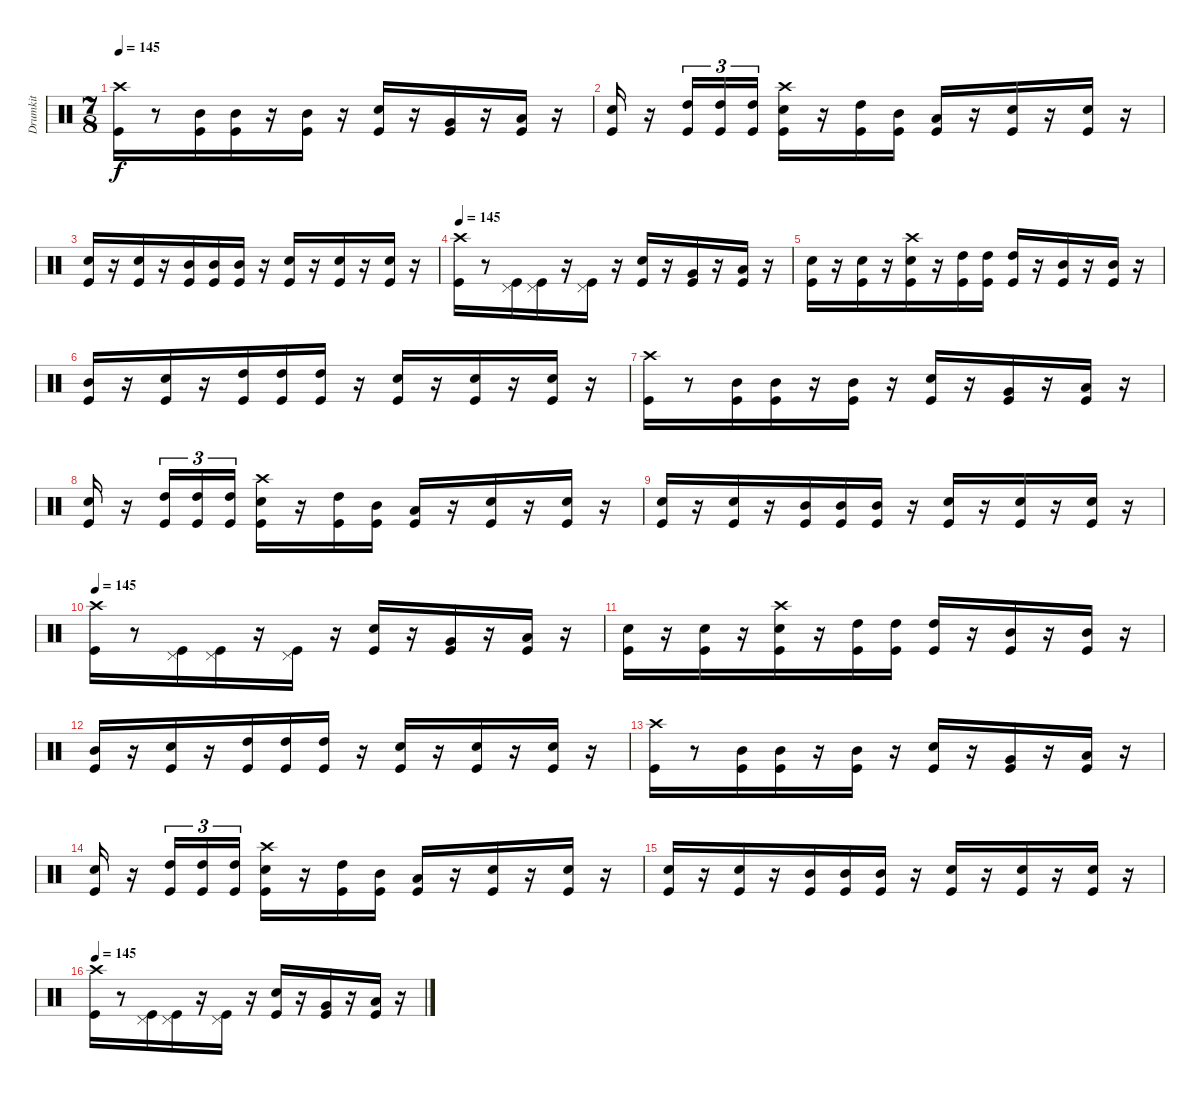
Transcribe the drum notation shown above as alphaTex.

\track ("Drumkit" "Drumkit") {instrument percussion}
\staff {score}
\articulation defaults
\ts (7 8)
\tempo 145
\clef neutral
\ks c
("Crash high (hit)" "Kick (hit)").16{dy f} r.8 ("Mid Tom (hit)" "Kick (hit)").16 ("Mid Tom (hit)" "Kick (hit)").16 r.16 ("Mid Tom (hit)" "Kick (hit)").16 r.16 ("Snare (hit) 2" "Kick (hit)").16 r.16 ("Very Low Tom (hit)" "Kick (hit)").16 r.16 ("Low Tom (hit)" "Kick (hit)").16 r.16 |
("Snare (hit) 2" "Kick (hit)").16 r.16 ("High Tom (hit)" "Kick (hit)").16{tu (3 2)} ("High Tom (hit)" "Kick (hit)").16{tu (3 2)} ("High Tom (hit)" "Kick (hit)").16{tu (3 2)} ("Crash high (hit)" "Snare (hit) 2" "Kick (hit)").16 r.16 ("High Tom (hit)" "Kick (hit)").16 ("Mid Tom (hit)" "Kick (hit)").16 ("Low Tom (hit)" "Kick (hit)").16 r.16 ("Snare (hit) 2" "Kick (hit)").16 r.16 ("Snare (hit) 2" "Kick (hit)").16 r.16 |
("Snare (hit) 2" "Kick (hit)").16 r.16 ("Snare (hit) 2" "Kick (hit)").16 r.16 ("Mid Tom (hit)" "Kick (hit)").16 ("Mid Tom (hit)" "Kick (hit)").16 ("Mid Tom (hit)" "Kick (hit)").16 r.16 ("Snare (hit) 2" "Kick (hit)").16 r.16 ("Snare (hit) 2" "Kick (hit)").16 r.16 ("Snare (hit) 2" "Kick (hit)").16 r.16 |
\tempo 145
("Crash high (hit)" "Kick (hit)").16 r.8 ("Pedal Hi-Hat (hit)" "Kick (hit)").16 ("Pedal Hi-Hat (hit)" "Kick (hit)").16 r.16 ("Pedal Hi-Hat (hit)" "Kick (hit)").16 r.16 ("Snare (hit) 2" "Kick (hit)").16 r.16 ("Very Low Tom (hit)" "Kick (hit)").16 r.16 ("Low Tom (hit)" "Kick (hit)").16 r.16 |
("Snare (hit) 2" "Kick (hit)").16 r.16 ("Snare (hit) 2" "Kick (hit)").16 r.16 ("Crash high (hit)" "Snare (hit) 2" "Kick (hit)").16 r.16 ("High Tom (hit)" "Kick (hit)").16 ("High Tom (hit)" "Kick (hit)").16 ("High Tom (hit)" "Kick (hit)").16 r.16 ("Mid Tom (hit)" "Kick (hit)").16 r.16 ("Mid Tom (hit)" "Kick (hit)").16 r.16 |
("Mid Tom (hit)" "Kick (hit)").16 r.16 ("Snare (hit) 2" "Kick (hit)").16 r.16 ("High Tom (hit)" "Kick (hit)").16 ("High Tom (hit)" "Kick (hit)").16 ("High Tom (hit)" "Kick (hit)").16 r.16 ("Snare (hit) 2" "Kick (hit)").16 r.16 ("Snare (hit) 2" "Kick (hit)").16 r.16 ("Snare (hit) 2" "Kick (hit)").16 r.16 |
("Crash high (hit)" "Kick (hit)").16 r.8 ("Mid Tom (hit)" "Kick (hit)").16 ("Mid Tom (hit)" "Kick (hit)").16 r.16 ("Mid Tom (hit)" "Kick (hit)").16 r.16 ("Snare (hit) 2" "Kick (hit)").16 r.16 ("Very Low Tom (hit)" "Kick (hit)").16 r.16 ("Low Tom (hit)" "Kick (hit)").16 r.16 |
("Snare (hit) 2" "Kick (hit)").16 r.16 ("High Tom (hit)" "Kick (hit)").16{tu (3 2)} ("High Tom (hit)" "Kick (hit)").16{tu (3 2)} ("High Tom (hit)" "Kick (hit)").16{tu (3 2)} ("Crash high (hit)" "Snare (hit) 2" "Kick (hit)").16 r.16 ("High Tom (hit)" "Kick (hit)").16 ("Mid Tom (hit)" "Kick (hit)").16 ("Low Tom (hit)" "Kick (hit)").16 r.16 ("Snare (hit) 2" "Kick (hit)").16 r.16 ("Snare (hit) 2" "Kick (hit)").16 r.16 |
("Snare (hit) 2" "Kick (hit)").16 r.16 ("Snare (hit) 2" "Kick (hit)").16 r.16 ("Mid Tom (hit)" "Kick (hit)").16 ("Mid Tom (hit)" "Kick (hit)").16 ("Mid Tom (hit)" "Kick (hit)").16 r.16 ("Snare (hit) 2" "Kick (hit)").16 r.16 ("Snare (hit) 2" "Kick (hit)").16 r.16 ("Snare (hit) 2" "Kick (hit)").16 r.16 |
\tempo 145
("Crash high (hit)" "Kick (hit)").16 r.8 ("Pedal Hi-Hat (hit)" "Kick (hit)").16 ("Pedal Hi-Hat (hit)" "Kick (hit)").16 r.16 ("Pedal Hi-Hat (hit)" "Kick (hit)").16 r.16 ("Snare (hit) 2" "Kick (hit)").16 r.16 ("Very Low Tom (hit)" "Kick (hit)").16 r.16 ("Low Tom (hit)" "Kick (hit)").16 r.16 |
("Snare (hit) 2" "Kick (hit)").16 r.16 ("Snare (hit) 2" "Kick (hit)").16 r.16 ("Crash high (hit)" "Snare (hit) 2" "Kick (hit)").16 r.16 ("High Tom (hit)" "Kick (hit)").16 ("High Tom (hit)" "Kick (hit)").16 ("High Tom (hit)" "Kick (hit)").16 r.16 ("Mid Tom (hit)" "Kick (hit)").16 r.16 ("Mid Tom (hit)" "Kick (hit)").16 r.16 |
("Mid Tom (hit)" "Kick (hit)").16 r.16 ("Snare (hit) 2" "Kick (hit)").16 r.16 ("High Tom (hit)" "Kick (hit)").16 ("High Tom (hit)" "Kick (hit)").16 ("High Tom (hit)" "Kick (hit)").16 r.16 ("Snare (hit) 2" "Kick (hit)").16 r.16 ("Snare (hit) 2" "Kick (hit)").16 r.16 ("Snare (hit) 2" "Kick (hit)").16 r.16 |
("Crash high (hit)" "Kick (hit)").16 r.8 ("Mid Tom (hit)" "Kick (hit)").16 ("Mid Tom (hit)" "Kick (hit)").16 r.16 ("Mid Tom (hit)" "Kick (hit)").16 r.16 ("Snare (hit) 2" "Kick (hit)").16 r.16 ("Very Low Tom (hit)" "Kick (hit)").16 r.16 ("Low Tom (hit)" "Kick (hit)").16 r.16 |
("Snare (hit) 2" "Kick (hit)").16 r.16 ("High Tom (hit)" "Kick (hit)").16{tu (3 2)} ("High Tom (hit)" "Kick (hit)").16{tu (3 2)} ("High Tom (hit)" "Kick (hit)").16{tu (3 2)} ("Crash high (hit)" "Snare (hit) 2" "Kick (hit)").16 r.16 ("High Tom (hit)" "Kick (hit)").16 ("Mid Tom (hit)" "Kick (hit)").16 ("Low Tom (hit)" "Kick (hit)").16 r.16 ("Snare (hit) 2" "Kick (hit)").16 r.16 ("Snare (hit) 2" "Kick (hit)").16 r.16 |
("Snare (hit) 2" "Kick (hit)").16 r.16 ("Snare (hit) 2" "Kick (hit)").16 r.16 ("Mid Tom (hit)" "Kick (hit)").16 ("Mid Tom (hit)" "Kick (hit)").16 ("Mid Tom (hit)" "Kick (hit)").16 r.16 ("Snare (hit) 2" "Kick (hit)").16 r.16 ("Snare (hit) 2" "Kick (hit)").16 r.16 ("Snare (hit) 2" "Kick (hit)").16 r.16 |
\tempo 145
("Crash high (hit)" "Kick (hit)").16 r.8 ("Pedal Hi-Hat (hit)" "Kick (hit)").16 ("Pedal Hi-Hat (hit)" "Kick (hit)").16 r.16 ("Pedal Hi-Hat (hit)" "Kick (hit)").16 r.16 ("Snare (hit) 2" "Kick (hit)").16 r.16 ("Very Low Tom (hit)" "Kick (hit)").16 r.16 ("Low Tom (hit)" "Kick (hit)").16 r.16
